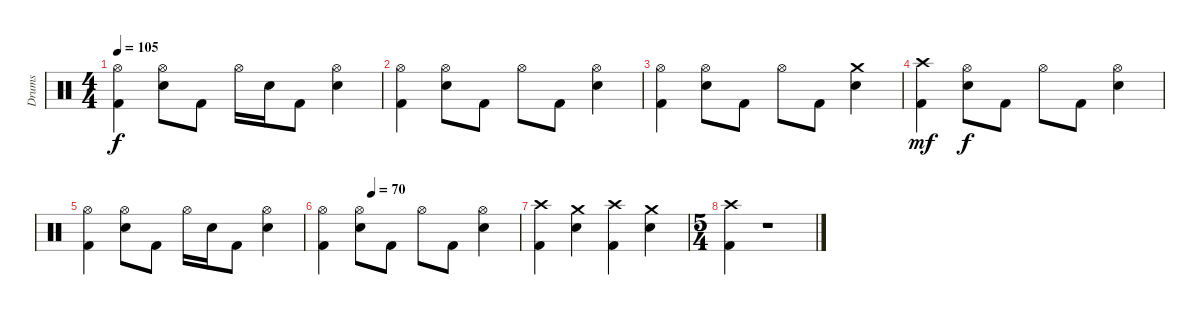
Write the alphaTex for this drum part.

\track ("Drums" "Drums") {instrument percussion}
\staff {score}
\articulation defaults
\ts (4 4)
\tempo 105
\clef neutral
\ks c
("Hi-Hat (open)" "Kick (hit) 2").4{dy f} ("Hi-Hat (open)" "Snare (hit) 2").8 "Kick (hit) 2".8 "Hi-Hat (open)".16 "Snare (hit) 2".16 "Kick (hit) 2".8 ("Hi-Hat (open)" "Snare (hit) 2").4 |
("Hi-Hat (open)" "Kick (hit) 2").4 ("Hi-Hat (open)" "Snare (hit) 2").8 "Kick (hit) 2".8 "Hi-Hat (open)".8 "Kick (hit) 2".8 ("Hi-Hat (open)" "Snare (hit) 2").4 |
("Hi-Hat (open)" "Kick (hit) 2").4 ("Hi-Hat (open)" "Snare (hit) 2").8 "Kick (hit) 2".8 "Hi-Hat (open)".8 "Kick (hit) 2".8 ("Crash medium (hit)" "Snare (hit) 2").4 |
("Crash high (hit)" "Kick (hit) 2").4{dy mf} ("Hi-Hat (open)" "Snare (hit) 2").8{dy f} "Kick (hit) 2".8 "Hi-Hat (open)".8 "Kick (hit) 2".8 ("Hi-Hat (open)" "Snare (hit) 2").4 |
("Hi-Hat (open)" "Kick (hit) 2").4 ("Hi-Hat (open)" "Snare (hit) 2").8 "Kick (hit) 2".8 "Hi-Hat (open)".16 "Snare (hit) 2".16 "Kick (hit) 2".8 ("Hi-Hat (open)" "Snare (hit) 2").4 |
\tempo (70 0.25)
("Hi-Hat (open)" "Kick (hit) 2").4 ("Hi-Hat (open)" "Snare (hit) 2").8 "Kick (hit) 2".8 "Hi-Hat (open)".8 "Kick (hit) 2".8 ("Hi-Hat (open)" "Snare (hit) 2").4 |
("Crash high (hit)" "Kick (hit) 2").4 ("Crash medium (hit)" "Snare (hit) 2").4 ("Crash high (hit)" "Kick (hit) 2").4 ("Crash medium (hit)" "Snare (hit) 2").4 |
\ts (5 4)
("Crash high (hit)" "Kick (hit) 2").4 r.1
